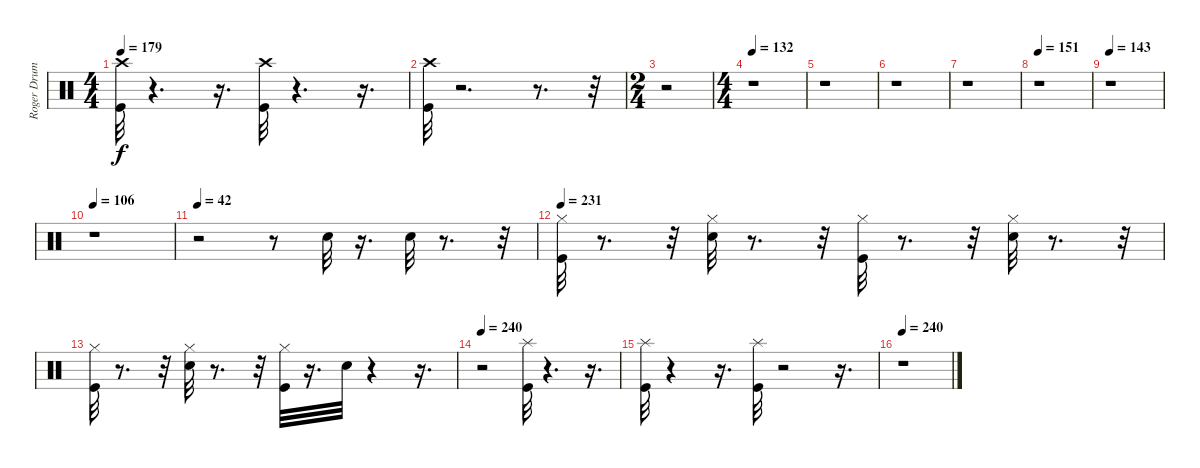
\track ("Roger Drums" "Roger Drum") {instrument percussion}
\staff {score}
\articulation defaults
\ts (4 4)
\tempo 179
\clef neutral
\ks c
("Kick (hit)" "Crash high (hit)").32{dy f} r.4{d} r.16{d} ("Crash high (hit)" "Kick (hit)").32 r.4{d} r.16{d} |
("Kick (hit)" "Crash high (hit)").32 r.2{d} r.8{d} r.32 |
\ts (2 4)
r.2 |
\ts (4 4)
\tempo 132
r.1 |
r.1 |
r.1 |
r.1 |
\tempo 151
r.1 |
\tempo 143
r.1 |
\tempo 106
r.1 |
\tempo 42
r.2 r.8 "Electric Snare (hit)".32 r.16{d} "Electric Snare (hit)".32 r.8{d} r.32 |
\tempo 231
("Hi-Hat (closed)" "Kick (hit)").32 r.8{d} r.32 ("Hi-Hat (closed)" "Electric Snare (hit)").32 r.8{d} r.32 ("Hi-Hat (closed)" "Kick (hit)").32 r.8{d} r.32 ("Hi-Hat (closed)" "Electric Snare (hit)").32 r.8{d} r.32 |
("Hi-Hat (closed)" "Kick (hit)").32 r.8{d} r.32 ("Hi-Hat (closed)" "Electric Snare (hit)").32 r.8{d} r.32 ("Hi-Hat (closed)" "Kick (hit)").32 r.16{d} "Electric Snare (hit)".32 r.4 r.16{d} |
\tempo 240
r.2 ("Splash (hit)" "Kick (hit)").32 r.4{d} r.16{d} |
("Splash (hit)" "Kick (hit)").32 r.4 r.16{d} ("Splash (hit)" "Kick (hit)").32 r.2 r.16{d} |
\tempo 240
r.1
